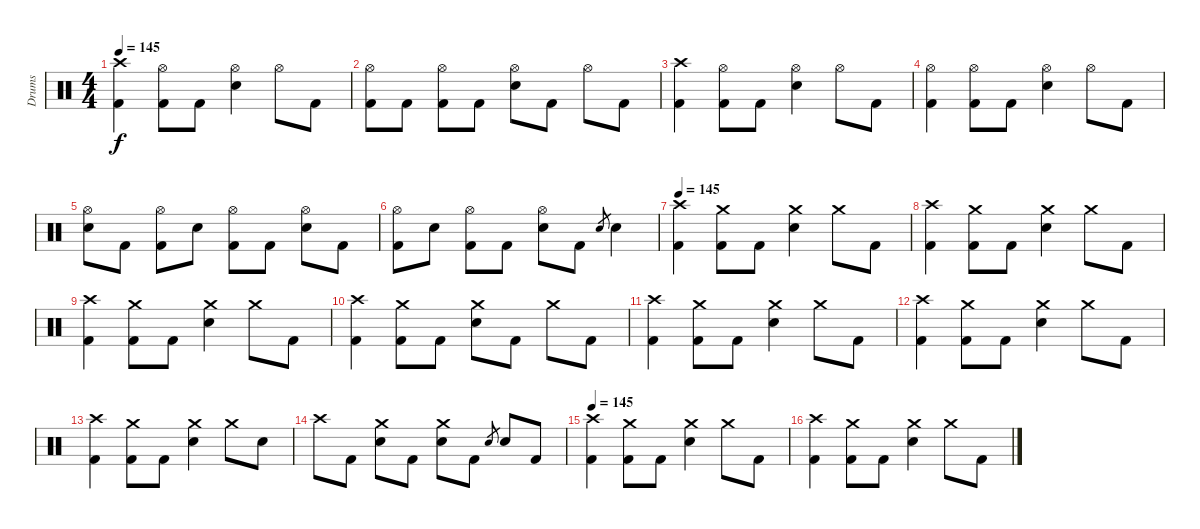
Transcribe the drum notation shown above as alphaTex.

\track ("Drums" "Drums") {instrument percussion}
\staff {score}
\articulation defaults
\ts (4 4)
\tempo 145
\clef neutral
\ks c
("Crash high (hit)" "Kick (hit) 2").4{dy f} ("Hi-Hat (open)" "Kick (hit) 2").8 "Kick (hit) 2".8 ("Hi-Hat (open)" "Electric Snare (hit)").4 "Hi-Hat (open)".8 "Kick (hit) 2".8 |
("Hi-Hat (open)" "Kick (hit) 2").8 "Kick (hit) 2".8 ("Hi-Hat (open)" "Kick (hit) 2").8 "Kick (hit) 2".8 ("Hi-Hat (open)" "Electric Snare (hit)").8 "Kick (hit) 2".8 "Hi-Hat (open)".8 "Kick (hit) 2".8 |
("Crash high (hit)" "Kick (hit) 2").4 ("Hi-Hat (open)" "Kick (hit) 2").8 "Kick (hit) 2".8 ("Hi-Hat (open)" "Electric Snare (hit)").4 "Hi-Hat (open)".8 "Kick (hit) 2".8 |
("Hi-Hat (open)" "Kick (hit) 2").4 ("Hi-Hat (open)" "Kick (hit) 2").8 "Kick (hit) 2".8 ("Hi-Hat (open)" "Electric Snare (hit)").4 "Hi-Hat (open)".8 "Kick (hit) 2".8 |
("Hi-Hat (open)" "Electric Snare (hit)").8 "Kick (hit) 2".8 ("Hi-Hat (open)" "Kick (hit) 2").8 "Electric Snare (hit)".8 ("Hi-Hat (open)" "Kick (hit) 2").8 "Kick (hit) 2".8 ("Hi-Hat (open)" "Electric Snare (hit)").8 "Kick (hit) 2".8 |
("Hi-Hat (open)" "Kick (hit) 2").8 "Electric Snare (hit)".8 ("Hi-Hat (open)" "Kick (hit) 2").8 "Kick (hit) 2".8 ("Hi-Hat (open)" "Electric Snare (hit)").8 "Kick (hit) 2".8 "Electric Snare (hit)".8{gr} "Electric Snare (hit)".4 |
\tempo 145
("Crash high (hit)" "Kick (hit) 2").4 ("Crash medium (hit)" "Kick (hit) 2").8 "Kick (hit) 2".8 ("Crash medium (hit)" "Electric Snare (hit)").4 "Crash medium (hit)".8 "Kick (hit) 2".8 |
("Crash high (hit)" "Kick (hit) 2").4 ("Crash medium (hit)" "Kick (hit) 2").8 "Kick (hit) 2".8 ("Crash medium (hit)" "Electric Snare (hit)").4 "Crash medium (hit)".8 "Kick (hit) 2".8 |
("Crash high (hit)" "Kick (hit) 2").4 ("Crash medium (hit)" "Kick (hit) 2").8 "Kick (hit) 2".8 ("Crash medium (hit)" "Electric Snare (hit)").4 "Crash medium (hit)".8 "Kick (hit) 2".8 |
("Crash high (hit)" "Kick (hit) 2").4 ("Crash medium (hit)" "Kick (hit) 2").8 "Kick (hit) 2".8 ("Crash medium (hit)" "Electric Snare (hit)").8 "Kick (hit) 2".8 "Crash medium (hit)".8 "Kick (hit) 2".8 |
("Crash high (hit)" "Kick (hit) 2").4 ("Crash medium (hit)" "Kick (hit) 2").8 "Kick (hit) 2".8 ("Crash medium (hit)" "Electric Snare (hit)").4 "Crash medium (hit)".8 "Kick (hit) 2".8 |
("Crash high (hit)" "Kick (hit) 2").4 ("Crash medium (hit)" "Kick (hit) 2").8 "Kick (hit) 2".8 ("Crash medium (hit)" "Electric Snare (hit)").4 "Crash medium (hit)".8 "Kick (hit) 2".8 |
("Crash high (hit)" "Kick (hit) 2").4 ("Crash medium (hit)" "Kick (hit) 2").8 "Kick (hit) 2".8 ("Crash medium (hit)" "Electric Snare (hit)").4 "Crash medium (hit)".8 "Electric Snare (hit)".8 |
"Crash high (hit)".8 "Kick (hit) 2".8 ("Crash medium (hit)" "Electric Snare (hit)").8 "Kick (hit) 2".8 ("Crash medium (hit)" "Electric Snare (hit)").8 "Kick (hit) 2".8 "Electric Snare (hit)".8{gr} "Electric Snare (hit)".8 "Kick (hit) 2".8 |
\tempo 145
("Crash high (hit)" "Kick (hit) 2").4 ("Crash medium (hit)" "Kick (hit) 2").8 "Kick (hit) 2".8 ("Crash medium (hit)" "Electric Snare (hit)").4 "Crash medium (hit)".8 "Kick (hit) 2".8 |
("Crash high (hit)" "Kick (hit) 2").4 ("Crash medium (hit)" "Kick (hit) 2").8 "Kick (hit) 2".8 ("Crash medium (hit)" "Electric Snare (hit)").4 "Crash medium (hit)".8 "Kick (hit) 2".8
